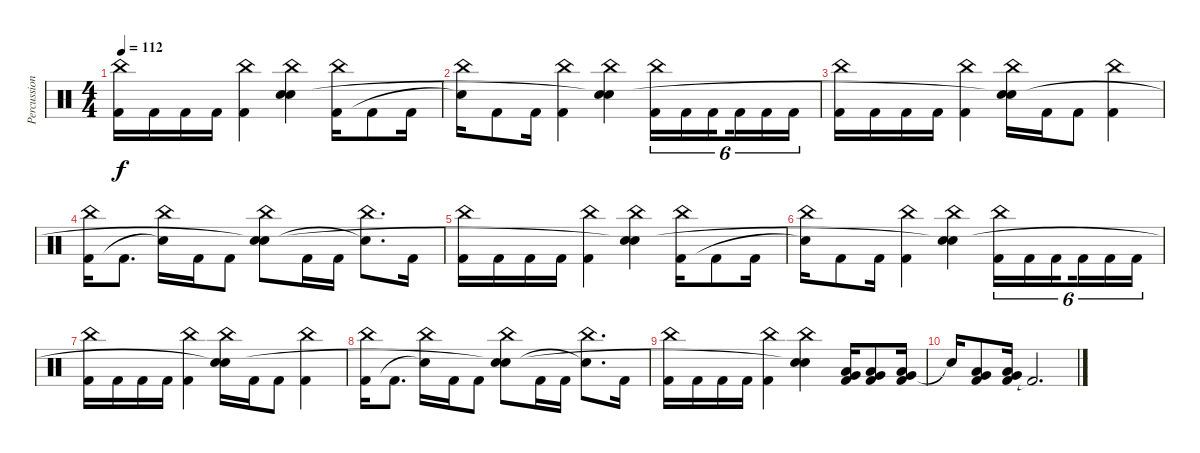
\track ("Percussion" "Percussion") {instrument percussion}
\staff {score}
\articulation defaults
\ts (4 4)
\tempo 112
\clef neutral
\ks c
("China (hit)" "Kick (hit) 2").16{dy f} "Kick (hit) 2".16 "Kick (hit) 2".16 "Kick (hit) 2".16 ("China (hit)" "Kick (hit) 2").4 ("China (hit)" "Snare (hit) 2" "Snare (hit)"{t}).4 ("China (hit)" "Kick (hit) 2").16 "Kick (hit) 2".8 "Kick (hit) 2".16 |
("China (hit)" "Snare (hit)"{t}).16 "Kick (hit) 2".8 "Kick (hit) 2".16 ("China (hit)" "Kick (hit) 2").4 ("China (hit)" "Snare (hit) 2" "Snare (hit)"{t}).4 ("China (hit)" "Kick (hit) 2").16{tu (6 4)} "Kick (hit) 2".16{tu (6 4)} "Kick (hit) 2".16{tu (6 4) beam splitsecondary} "Kick (hit) 2".16{tu (6 4)} "Kick (hit) 2".16{tu (6 4)} "Kick (hit) 2".16{tu (6 4)} |
("China (hit)" "Kick (hit) 2").16 "Kick (hit) 2".16 "Kick (hit) 2".16 "Kick (hit) 2".16 ("China (hit)" "Kick (hit) 2").4 ("China (hit)" "Snare (hit) 2" "Snare (hit)"{t}).16 "Kick (hit) 2".16 "Kick (hit) 2".8 ("China (hit)" "Kick (hit) 2").4 |
("China (hit)" "Kick (hit) 2").16 "Kick (hit) 2".8{d} ("China (hit)" "Snare (hit)"{t}).16 "Kick (hit) 2".16 "Kick (hit) 2".8 ("China (hit)" "Snare (hit) 2" "Snare (hit)"{t}).8 "Kick (hit) 2".16 "Kick (hit) 2".16 ("China (hit)" "Snare (hit)"{t}).8{d} "Kick (hit) 2".16 |
("China (hit)" "Kick (hit) 2").16 "Kick (hit) 2".16 "Kick (hit) 2".16 "Kick (hit) 2".16 ("China (hit)" "Kick (hit) 2").4 ("China (hit)" "Snare (hit) 2" "Snare (hit)"{t}).4 ("China (hit)" "Kick (hit) 2").16 "Kick (hit) 2".8 "Kick (hit) 2".16 |
("China (hit)" "Snare (hit)"{t}).16 "Kick (hit) 2".8 "Kick (hit) 2".16 ("China (hit)" "Kick (hit) 2").4 ("China (hit)" "Snare (hit) 2" "Snare (hit)"{t}).4 ("China (hit)" "Kick (hit) 2").16{tu (6 4)} "Kick (hit) 2".16{tu (6 4)} "Kick (hit) 2".16{tu (6 4) beam splitsecondary} "Kick (hit) 2".16{tu (6 4)} "Kick (hit) 2".16{tu (6 4)} "Kick (hit) 2".16{tu (6 4)} |
("China (hit)" "Kick (hit) 2").16 "Kick (hit) 2".16 "Kick (hit) 2".16 "Kick (hit) 2".16 ("China (hit)" "Kick (hit) 2").4 ("China (hit)" "Snare (hit) 2" "Snare (hit)"{t}).16 "Kick (hit) 2".16 "Kick (hit) 2".8 ("China (hit)" "Kick (hit) 2").4 |
("China (hit)" "Kick (hit) 2").16 "Kick (hit) 2".8{d} ("China (hit)" "Snare (hit)"{t}).16 "Kick (hit) 2".16 "Kick (hit) 2".8 ("China (hit)" "Snare (hit) 2" "Snare (hit)"{t}).8 "Kick (hit) 2".16 "Kick (hit) 2".16 ("China (hit)" "Snare (hit)"{t}).8{d} "Kick (hit) 2".16 |
("China (hit)" "Kick (hit) 2").16 "Kick (hit) 2".16 "Kick (hit) 2".16 "Kick (hit) 2".16 ("China (hit)" "Kick (hit) 2").4 ("China (hit)" "Snare (hit) 2" "Snare (hit)"{t}).4 ("Very Low Tom (hit)" "Low Floor Tom (hit)" "Kick (hit) 2").16 ("Very Low Tom (hit)" "Low Floor Tom (hit)" "Kick (hit) 2").8 ("Very Low Tom (hit)" "Low Floor Tom (hit)" "Kick (hit) 2").16 |
"Snare (hit)"{t}.16 ("Very Low Tom (hit)" "Low Floor Tom (hit)" "Kick (hit) 2").8 ("Very Low Tom (hit)" "Low Floor Tom (hit)" "Kick (hit) 2").16 "Kick (hit) 2"{t}.2{d}
